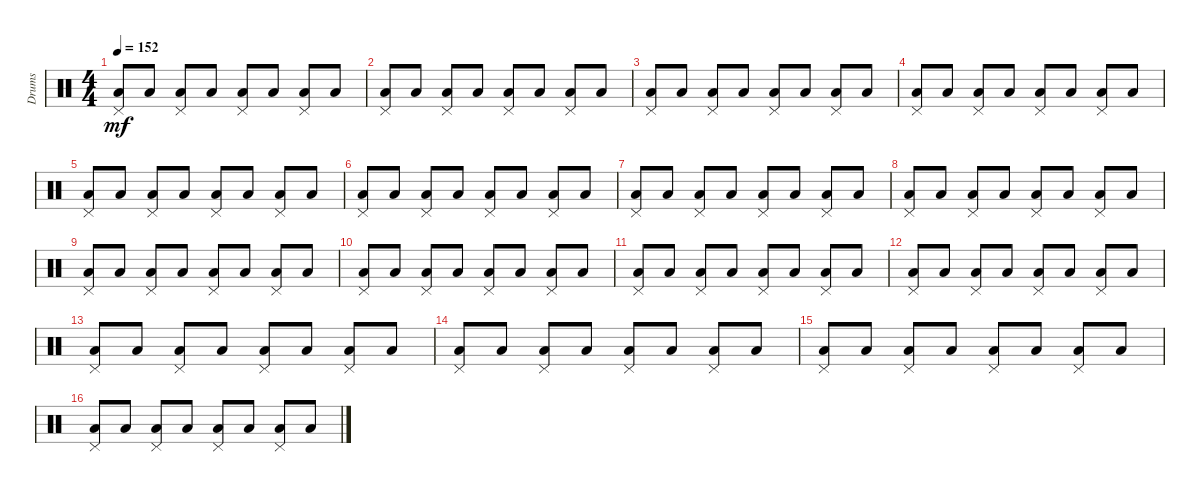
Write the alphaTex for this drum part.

\track ("Drums" "Drums") {instrument percussion}
\staff {score}
\articulation defaults
\ts (4 4)
\tempo 152
\clef neutral
\ks c
("Low Floor Tom (hit)" "Pedal Hi-Hat (hit)").8{dy mf} "Low Floor Tom (hit)".8 ("Low Floor Tom (hit)" "Pedal Hi-Hat (hit)").8 "Low Floor Tom (hit)".8 ("Low Floor Tom (hit)" "Pedal Hi-Hat (hit)").8 "Low Floor Tom (hit)".8 ("Low Floor Tom (hit)" "Pedal Hi-Hat (hit)").8 "Low Floor Tom (hit)".8 |
("Pedal Hi-Hat (hit)" "Low Floor Tom (hit)").8 "Low Floor Tom (hit)".8 ("Pedal Hi-Hat (hit)" "Low Floor Tom (hit)").8 "Low Floor Tom (hit)".8 ("Pedal Hi-Hat (hit)" "Low Floor Tom (hit)").8 "Low Floor Tom (hit)".8 ("Pedal Hi-Hat (hit)" "Low Floor Tom (hit)").8 "Low Floor Tom (hit)".8 |
("Pedal Hi-Hat (hit)" "Low Floor Tom (hit)").8 "Low Floor Tom (hit)".8 ("Pedal Hi-Hat (hit)" "Low Floor Tom (hit)").8 "Low Floor Tom (hit)".8 ("Pedal Hi-Hat (hit)" "Low Floor Tom (hit)").8 "Low Floor Tom (hit)".8 ("Pedal Hi-Hat (hit)" "Low Floor Tom (hit)").8 "Low Floor Tom (hit)".8 |
("Low Floor Tom (hit)" "Pedal Hi-Hat (hit)").8 "Low Floor Tom (hit)".8 ("Low Floor Tom (hit)" "Pedal Hi-Hat (hit)").8 "Low Floor Tom (hit)".8 ("Low Floor Tom (hit)" "Pedal Hi-Hat (hit)").8 "Low Floor Tom (hit)".8 ("Low Floor Tom (hit)" "Pedal Hi-Hat (hit)").8 "Low Floor Tom (hit)".8 |
("Low Floor Tom (hit)" "Pedal Hi-Hat (hit)").8 "Low Floor Tom (hit)".8 ("Low Floor Tom (hit)" "Pedal Hi-Hat (hit)").8 "Low Floor Tom (hit)".8 ("Low Floor Tom (hit)" "Pedal Hi-Hat (hit)").8 "Low Floor Tom (hit)".8 ("Low Floor Tom (hit)" "Pedal Hi-Hat (hit)").8 "Low Floor Tom (hit)".8 |
("Low Floor Tom (hit)" "Pedal Hi-Hat (hit)").8 "Low Floor Tom (hit)".8 ("Low Floor Tom (hit)" "Pedal Hi-Hat (hit)").8 "Low Floor Tom (hit)".8 ("Low Floor Tom (hit)" "Pedal Hi-Hat (hit)").8 "Low Floor Tom (hit)".8 ("Low Floor Tom (hit)" "Pedal Hi-Hat (hit)").8 "Low Floor Tom (hit)".8 |
("Low Floor Tom (hit)" "Pedal Hi-Hat (hit)").8 "Low Floor Tom (hit)".8 ("Low Floor Tom (hit)" "Pedal Hi-Hat (hit)").8 "Low Floor Tom (hit)".8 ("Low Floor Tom (hit)" "Pedal Hi-Hat (hit)").8 "Low Floor Tom (hit)".8 ("Low Floor Tom (hit)" "Pedal Hi-Hat (hit)").8 "Low Floor Tom (hit)".8 |
("Pedal Hi-Hat (hit)" "Low Floor Tom (hit)").8 "Low Floor Tom (hit)".8 ("Pedal Hi-Hat (hit)" "Low Floor Tom (hit)").8 "Low Floor Tom (hit)".8 ("Pedal Hi-Hat (hit)" "Low Floor Tom (hit)").8 "Low Floor Tom (hit)".8 ("Pedal Hi-Hat (hit)" "Low Floor Tom (hit)").8 "Low Floor Tom (hit)".8 |
("Pedal Hi-Hat (hit)" "Low Floor Tom (hit)").8 "Low Floor Tom (hit)".8 ("Pedal Hi-Hat (hit)" "Low Floor Tom (hit)").8 "Low Floor Tom (hit)".8 ("Pedal Hi-Hat (hit)" "Low Floor Tom (hit)").8 "Low Floor Tom (hit)".8 ("Pedal Hi-Hat (hit)" "Low Floor Tom (hit)").8 "Low Floor Tom (hit)".8 |
("Low Floor Tom (hit)" "Pedal Hi-Hat (hit)").8 "Low Floor Tom (hit)".8 ("Low Floor Tom (hit)" "Pedal Hi-Hat (hit)").8 "Low Floor Tom (hit)".8 ("Low Floor Tom (hit)" "Pedal Hi-Hat (hit)").8 "Low Floor Tom (hit)".8 ("Low Floor Tom (hit)" "Pedal Hi-Hat (hit)").8 "Low Floor Tom (hit)".8 |
("Low Floor Tom (hit)" "Pedal Hi-Hat (hit)").8 "Low Floor Tom (hit)".8 ("Low Floor Tom (hit)" "Pedal Hi-Hat (hit)").8 "Low Floor Tom (hit)".8 ("Low Floor Tom (hit)" "Pedal Hi-Hat (hit)").8 "Low Floor Tom (hit)".8 ("Low Floor Tom (hit)" "Pedal Hi-Hat (hit)").8 "Low Floor Tom (hit)".8 |
("Pedal Hi-Hat (hit)" "Low Floor Tom (hit)").8 "Low Floor Tom (hit)".8 ("Pedal Hi-Hat (hit)" "Low Floor Tom (hit)").8 "Low Floor Tom (hit)".8 ("Pedal Hi-Hat (hit)" "Low Floor Tom (hit)").8 "Low Floor Tom (hit)".8 ("Pedal Hi-Hat (hit)" "Low Floor Tom (hit)").8 "Low Floor Tom (hit)".8 |
("Pedal Hi-Hat (hit)" "Low Floor Tom (hit)").8 "Low Floor Tom (hit)".8 ("Pedal Hi-Hat (hit)" "Low Floor Tom (hit)").8 "Low Floor Tom (hit)".8 ("Pedal Hi-Hat (hit)" "Low Floor Tom (hit)").8 "Low Floor Tom (hit)".8 ("Pedal Hi-Hat (hit)" "Low Floor Tom (hit)").8 "Low Floor Tom (hit)".8 |
("Pedal Hi-Hat (hit)" "Low Floor Tom (hit)").8 "Low Floor Tom (hit)".8 ("Pedal Hi-Hat (hit)" "Low Floor Tom (hit)").8 "Low Floor Tom (hit)".8 ("Pedal Hi-Hat (hit)" "Low Floor Tom (hit)").8 "Low Floor Tom (hit)".8 ("Pedal Hi-Hat (hit)" "Low Floor Tom (hit)").8 "Low Floor Tom (hit)".8 |
("Pedal Hi-Hat (hit)" "Low Floor Tom (hit)").8 "Low Floor Tom (hit)".8 ("Pedal Hi-Hat (hit)" "Low Floor Tom (hit)").8 "Low Floor Tom (hit)".8 ("Pedal Hi-Hat (hit)" "Low Floor Tom (hit)").8 "Low Floor Tom (hit)".8 ("Pedal Hi-Hat (hit)" "Low Floor Tom (hit)").8 "Low Floor Tom (hit)".8 |
("Low Floor Tom (hit)" "Pedal Hi-Hat (hit)").8 "Low Floor Tom (hit)".8 ("Low Floor Tom (hit)" "Pedal Hi-Hat (hit)").8 "Low Floor Tom (hit)".8 ("Low Floor Tom (hit)" "Pedal Hi-Hat (hit)").8 "Low Floor Tom (hit)".8 ("Low Floor Tom (hit)" "Pedal Hi-Hat (hit)").8 "Low Floor Tom (hit)".8
